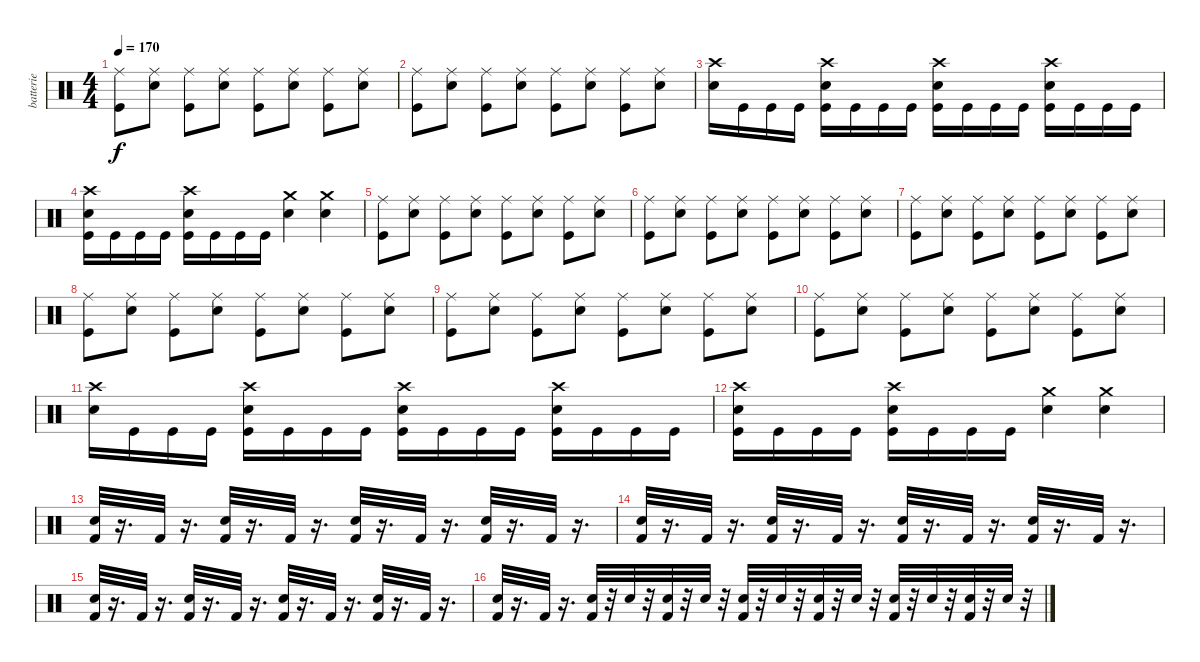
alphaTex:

\track ("batterie" "batterie") {instrument percussion}
\staff {score}
\articulation defaults
\ts (4 4)
\tempo 170
\clef neutral
\ks c
("Ride (middle)" "Kick (hit)").8{dy f} ("Ride (middle)" "Snare (hit) 2").8 ("Ride (middle)" "Kick (hit)").8 ("Ride (middle)" "Snare (hit) 2").8 ("Ride (middle)" "Kick (hit)").8 ("Ride (middle)" "Snare (hit) 2").8 ("Ride (middle)" "Kick (hit)").8 ("Ride (middle)" "Snare (hit) 2").8 |
("Ride (middle)" "Kick (hit)").8 ("Ride (middle)" "Snare (hit) 2").8 ("Ride (middle)" "Kick (hit)").8 ("Ride (middle)" "Snare (hit) 2").8 ("Ride (middle)" "Kick (hit)").8 ("Ride (middle)" "Snare (hit) 2").8 ("Ride (middle)" "Kick (hit)").8 ("Ride (middle)" "Snare (hit) 2").8 |
("Crash high (hit)" "Snare (hit) 2").16 "Kick (hit)".16 "Kick (hit)".16 "Kick (hit)".16 ("Crash high (hit)" "Snare (hit) 2" "Kick (hit)").16 "Kick (hit)".16 "Kick (hit)".16 "Kick (hit)".16 ("Crash high (hit)" "Snare (hit) 2" "Kick (hit)").16 "Kick (hit)".16 "Kick (hit)".16 "Kick (hit)".16 ("Crash high (hit)" "Snare (hit) 2" "Kick (hit)").16 "Kick (hit)".16 "Kick (hit)".16 "Kick (hit)".16 |
("Crash high (hit)" "Snare (hit) 2" "Kick (hit)").16 "Kick (hit)".16 "Kick (hit)".16 "Kick (hit)".16 ("Crash high (hit)" "Snare (hit) 2" "Kick (hit)").16 "Kick (hit)".16 "Kick (hit)".16 "Kick (hit)".16 ("Crash medium (hit)" "Snare (hit) 2").4 ("Crash medium (hit)" "Snare (hit) 2").4 |
("Ride (middle)" "Kick (hit)").8 ("Ride (middle)" "Snare (hit) 2").8 ("Ride (middle)" "Kick (hit)").8 ("Ride (middle)" "Snare (hit) 2").8 ("Ride (middle)" "Kick (hit)").8 ("Ride (middle)" "Snare (hit) 2").8 ("Ride (middle)" "Kick (hit)").8 ("Ride (middle)" "Snare (hit) 2").8 |
("Ride (middle)" "Kick (hit)").8 ("Ride (middle)" "Snare (hit) 2").8 ("Ride (middle)" "Kick (hit)").8 ("Ride (middle)" "Snare (hit) 2").8 ("Ride (middle)" "Kick (hit)").8 ("Ride (middle)" "Snare (hit) 2").8 ("Ride (middle)" "Kick (hit)").8 ("Ride (middle)" "Snare (hit) 2").8 |
("Ride (middle)" "Kick (hit)").8 ("Ride (middle)" "Snare (hit) 2").8 ("Ride (middle)" "Kick (hit)").8 ("Ride (middle)" "Snare (hit) 2").8 ("Ride (middle)" "Kick (hit)").8 ("Ride (middle)" "Snare (hit) 2").8 ("Ride (middle)" "Kick (hit)").8 ("Ride (middle)" "Snare (hit) 2").8 |
("Ride (middle)" "Kick (hit)").8 ("Ride (middle)" "Snare (hit) 2").8 ("Ride (middle)" "Kick (hit)").8 ("Ride (middle)" "Snare (hit) 2").8 ("Ride (middle)" "Kick (hit)").8 ("Ride (middle)" "Snare (hit) 2").8 ("Ride (middle)" "Kick (hit)").8 ("Ride (middle)" "Snare (hit) 2").8 |
("Ride (middle)" "Kick (hit)").8 ("Ride (middle)" "Snare (hit) 2").8 ("Ride (middle)" "Kick (hit)").8 ("Ride (middle)" "Snare (hit) 2").8 ("Ride (middle)" "Kick (hit)").8 ("Ride (middle)" "Snare (hit) 2").8 ("Ride (middle)" "Kick (hit)").8 ("Ride (middle)" "Snare (hit) 2").8 |
("Ride (middle)" "Kick (hit)").8 ("Ride (middle)" "Snare (hit) 2").8 ("Ride (middle)" "Kick (hit)").8 ("Ride (middle)" "Snare (hit) 2").8 ("Ride (middle)" "Kick (hit)").8 ("Ride (middle)" "Snare (hit) 2").8 ("Ride (middle)" "Kick (hit)").8 ("Ride (middle)" "Snare (hit) 2").8 |
("Crash high (hit)" "Snare (hit) 2").16 "Kick (hit)".16 "Kick (hit)".16 "Kick (hit)".16 ("Crash high (hit)" "Snare (hit) 2" "Kick (hit)").16 "Kick (hit)".16 "Kick (hit)".16 "Kick (hit)".16 ("Crash high (hit)" "Snare (hit) 2" "Kick (hit)").16 "Kick (hit)".16 "Kick (hit)".16 "Kick (hit)".16 ("Crash high (hit)" "Snare (hit) 2" "Kick (hit)").16 "Kick (hit)".16 "Kick (hit)".16 "Kick (hit)".16 |
("Crash high (hit)" "Snare (hit) 2" "Kick (hit)").16 "Kick (hit)".16 "Kick (hit)".16 "Kick (hit)".16 ("Crash high (hit)" "Snare (hit) 2" "Kick (hit)").16 "Kick (hit)".16 "Kick (hit)".16 "Kick (hit)".16 ("Crash medium (hit)" "Snare (hit) 2").4 ("Crash medium (hit)" "Snare (hit) 2").4 |
("Kick (hit) 2" "Snare (hit) 2").32 r.16{d} "Kick (hit) 2".32 r.16{d} ("Kick (hit) 2" "Snare (hit) 2").32 r.16{d} "Kick (hit) 2".32 r.16{d} ("Kick (hit) 2" "Snare (hit) 2").32 r.16{d} "Kick (hit) 2".32 r.16{d} ("Kick (hit) 2" "Snare (hit) 2").32 r.16{d} "Kick (hit) 2".32 r.16{d} |
("Kick (hit) 2" "Snare (hit) 2").32 r.16{d} "Kick (hit) 2".32 r.16{d} ("Kick (hit) 2" "Snare (hit) 2").32 r.16{d} "Kick (hit) 2".32 r.16{d} ("Kick (hit) 2" "Snare (hit) 2").32 r.16{d} "Kick (hit) 2".32 r.16{d} ("Kick (hit) 2" "Snare (hit) 2").32 r.16{d} "Kick (hit) 2".32 r.16{d} |
("Kick (hit) 2" "Snare (hit) 2").32 r.16{d} "Kick (hit) 2".32 r.16{d} ("Kick (hit) 2" "Snare (hit) 2").32 r.16{d} "Kick (hit) 2".32 r.16{d} ("Kick (hit) 2" "Snare (hit) 2").32 r.16{d} "Kick (hit) 2".32 r.16{d} ("Kick (hit) 2" "Snare (hit) 2").32 r.16{d} "Kick (hit) 2".32 r.16{d} |
("Kick (hit) 2" "Snare (hit) 2").32 r.16{d} "Kick (hit) 2".32 r.16{d} ("Kick (hit) 2" "Snare (hit) 2").32 r.32 "Snare (hit) 2".32 r.32 ("Kick (hit) 2" "Snare (hit) 2").32 r.32 "Snare (hit) 2".32 r.32 ("Kick (hit) 2" "Snare (hit) 2").32 r.32 "Snare (hit) 2".32 r.32 ("Kick (hit) 2" "Snare (hit) 2").32 r.32 "Snare (hit) 2".32 r.32 ("Kick (hit) 2" "Snare (hit) 2").32 r.32 "Snare (hit) 2".32 r.32 ("Kick (hit) 2" "Snare (hit) 2").32 r.32 "Snare (hit) 2".32 r.32
